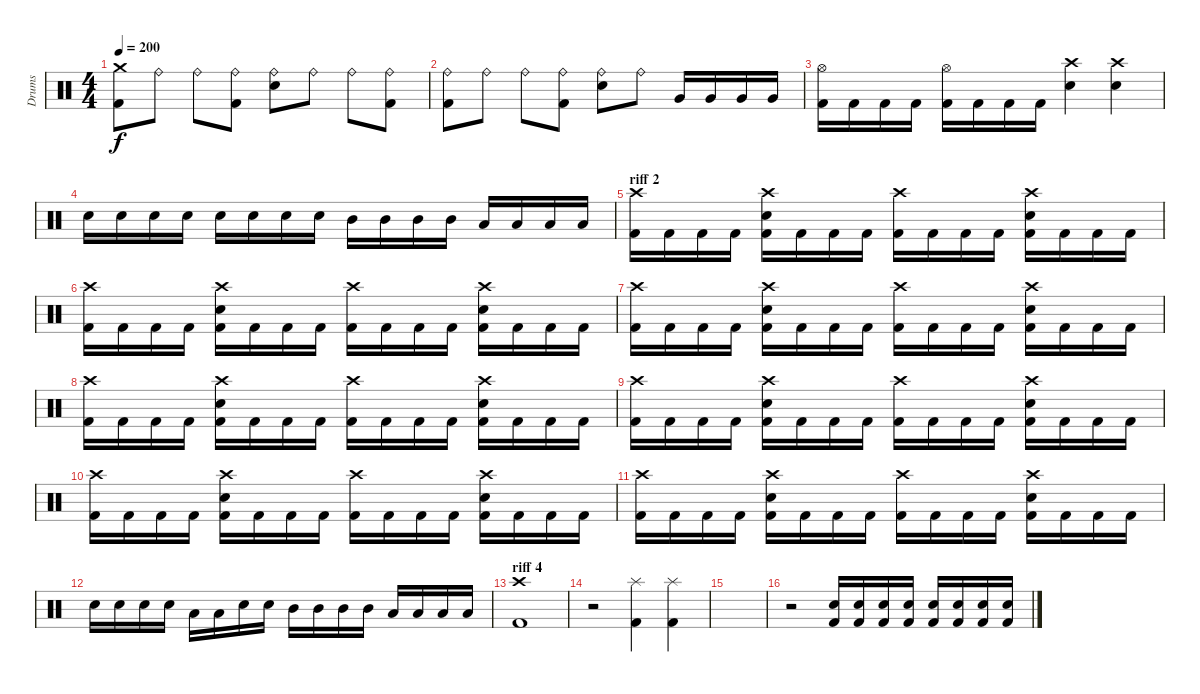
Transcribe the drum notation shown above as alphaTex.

\track ("Drums" "Drums") {instrument percussion}
\staff {score}
\articulation defaults
\ts (4 4)
\tempo 200
\clef neutral
\ks c
("Crash medium (hit)" "Kick (hit) 2").8{dy f} "Ride (bell)".8 "Ride (bell)".8 ("Ride (bell)" "Kick (hit) 2").8 ("Ride (bell)" "Electric Snare (hit)").8 "Ride (bell)".8 "Ride (bell)".8 ("Ride (bell)" "Kick (hit) 2").8 |
("Ride (bell)" "Kick (hit) 2").8 "Ride (bell)".8 "Ride (bell)".8 ("Ride (bell)" "Kick (hit) 2").8 ("Ride (bell)" "Electric Snare (hit)").8 "Ride (bell)".8 "Very Low Tom (hit)".16 "Very Low Tom (hit)".16 "Very Low Tom (hit)".16 "Very Low Tom (hit)".16 |
("Hi-Hat (open)" "Kick (hit) 2").16 "Kick (hit) 2".16 "Kick (hit) 2".16 "Kick (hit) 2".16 ("Hi-Hat (open)" "Kick (hit) 2").16 "Kick (hit) 2".16 "Kick (hit) 2".16 "Kick (hit) 2".16 ("Crash high (hit)" "Electric Snare (hit)").4 ("Crash high (hit)" "Electric Snare (hit)").4 |
"Electric Snare (hit)".16 "Electric Snare (hit)".16 "Electric Snare (hit)".16 "Electric Snare (hit)".16 "Electric Snare (hit)".16 "Electric Snare (hit)".16 "Electric Snare (hit)".16 "Electric Snare (hit)".16 "Mid Tom (hit)".16 "Mid Tom (hit)".16 "Mid Tom (hit)".16 "Mid Tom (hit)".16 "Low Tom (hit)".16 "Low Tom (hit)".16 "Low Tom (hit)".16 "Low Tom (hit)".16 |
\section ("" "riff 2")
("Crash high (hit)" "Kick (hit) 2").16 "Kick (hit) 2".16 "Kick (hit) 2".16 "Kick (hit) 2".16 ("Crash high (hit)" "Electric Snare (hit)" "Kick (hit) 2").16 "Kick (hit) 2".16 "Kick (hit) 2".16 "Kick (hit) 2".16 ("Crash high (hit)" "Kick (hit) 2").16 "Kick (hit) 2".16 "Kick (hit) 2".16 "Kick (hit) 2".16 ("Crash high (hit)" "Electric Snare (hit)" "Kick (hit) 2").16 "Kick (hit) 2".16 "Kick (hit) 2".16 "Kick (hit) 2".16 |
("Crash high (hit)" "Kick (hit) 2").16 "Kick (hit) 2".16 "Kick (hit) 2".16 "Kick (hit) 2".16 ("Crash high (hit)" "Electric Snare (hit)" "Kick (hit) 2").16 "Kick (hit) 2".16 "Kick (hit) 2".16 "Kick (hit) 2".16 ("Crash high (hit)" "Kick (hit) 2").16 "Kick (hit) 2".16 "Kick (hit) 2".16 "Kick (hit) 2".16 ("Crash high (hit)" "Electric Snare (hit)" "Kick (hit) 2").16 "Kick (hit) 2".16 "Kick (hit) 2".16 "Kick (hit) 2".16 |
("Crash high (hit)" "Kick (hit) 2").16 "Kick (hit) 2".16 "Kick (hit) 2".16 "Kick (hit) 2".16 ("Crash high (hit)" "Electric Snare (hit)" "Kick (hit) 2").16 "Kick (hit) 2".16 "Kick (hit) 2".16 "Kick (hit) 2".16 ("Crash high (hit)" "Kick (hit) 2").16 "Kick (hit) 2".16 "Kick (hit) 2".16 "Kick (hit) 2".16 ("Crash high (hit)" "Electric Snare (hit)" "Kick (hit) 2").16 "Kick (hit) 2".16 "Kick (hit) 2".16 "Kick (hit) 2".16 |
("Crash high (hit)" "Kick (hit) 2").16 "Kick (hit) 2".16 "Kick (hit) 2".16 "Kick (hit) 2".16 ("Crash high (hit)" "Electric Snare (hit)" "Kick (hit) 2").16 "Kick (hit) 2".16 "Kick (hit) 2".16 "Kick (hit) 2".16 ("Crash high (hit)" "Kick (hit) 2").16 "Kick (hit) 2".16 "Kick (hit) 2".16 "Kick (hit) 2".16 ("Crash high (hit)" "Electric Snare (hit)" "Kick (hit) 2").16 "Kick (hit) 2".16 "Kick (hit) 2".16 "Kick (hit) 2".16 |
("Crash high (hit)" "Kick (hit) 2").16 "Kick (hit) 2".16 "Kick (hit) 2".16 "Kick (hit) 2".16 ("Crash high (hit)" "Electric Snare (hit)" "Kick (hit) 2").16 "Kick (hit) 2".16 "Kick (hit) 2".16 "Kick (hit) 2".16 ("Crash high (hit)" "Kick (hit) 2").16 "Kick (hit) 2".16 "Kick (hit) 2".16 "Kick (hit) 2".16 ("Crash high (hit)" "Electric Snare (hit)" "Kick (hit) 2").16 "Kick (hit) 2".16 "Kick (hit) 2".16 "Kick (hit) 2".16 |
("Crash high (hit)" "Kick (hit) 2").16 "Kick (hit) 2".16 "Kick (hit) 2".16 "Kick (hit) 2".16 ("Crash high (hit)" "Electric Snare (hit)" "Kick (hit) 2").16 "Kick (hit) 2".16 "Kick (hit) 2".16 "Kick (hit) 2".16 ("Crash high (hit)" "Kick (hit) 2").16 "Kick (hit) 2".16 "Kick (hit) 2".16 "Kick (hit) 2".16 ("Crash high (hit)" "Electric Snare (hit)" "Kick (hit) 2").16 "Kick (hit) 2".16 "Kick (hit) 2".16 "Kick (hit) 2".16 |
("Crash high (hit)" "Kick (hit) 2").16 "Kick (hit) 2".16 "Kick (hit) 2".16 "Kick (hit) 2".16 ("Crash high (hit)" "Electric Snare (hit)" "Kick (hit) 2").16 "Kick (hit) 2".16 "Kick (hit) 2".16 "Kick (hit) 2".16 ("Crash high (hit)" "Kick (hit) 2").16 "Kick (hit) 2".16 "Kick (hit) 2".16 "Kick (hit) 2".16 ("Crash high (hit)" "Electric Snare (hit)" "Kick (hit) 2").16 "Kick (hit) 2".16 "Kick (hit) 2".16 "Kick (hit) 2".16 |
"Electric Snare (hit)".16 "Electric Snare (hit)".16 "Electric Snare (hit)".16 "Electric Snare (hit)".16 "Low Tom (hit)".16 "Low Tom (hit)".16 "Electric Snare (hit)".16 "Electric Snare (hit)".16 "Mid Tom (hit)".16 "Mid Tom (hit)".16 "Mid Tom (hit)".16 "Mid Tom (hit)".16 "Low Tom (hit)".16 "Low Tom (hit)".16 "Low Tom (hit)".16 "Low Tom (hit)".16 |
\section ("" "riff 4")
("Crash high (hit)" "Kick (hit) 2").1 |
r.2 ("Splash (hit)" "Kick (hit) 2").4 ("Splash (hit)" "Kick (hit) 2").4 |
|
r.2 ("Electric Snare (hit)" "Kick (hit) 2").16 ("Electric Snare (hit)" "Kick (hit) 2").16 ("Electric Snare (hit)" "Kick (hit) 2").16 ("Electric Snare (hit)" "Kick (hit) 2").16 ("Electric Snare (hit)" "Kick (hit) 2").16 ("Electric Snare (hit)" "Kick (hit) 2").16 ("Electric Snare (hit)" "Kick (hit) 2").16 ("Electric Snare (hit)" "Kick (hit) 2").16
